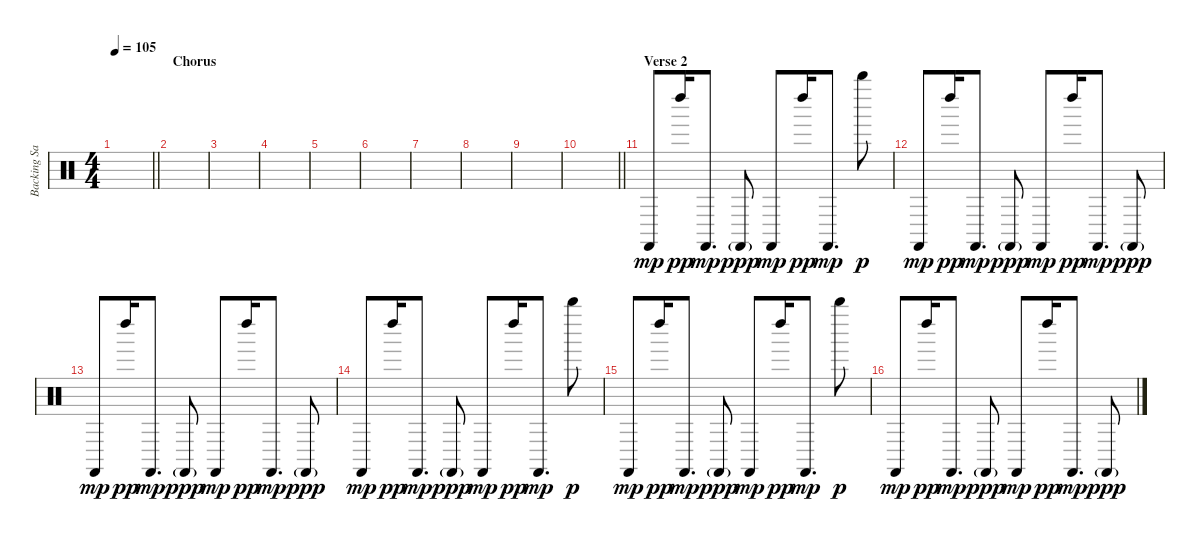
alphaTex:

\track ("Backing Samples " "Backing Sa") {instrument percussion}
\staff {score}
\articulation defaults
\ts (4 4)
\tempo 105
\clef neutral
\barLineRight lightlight
\ks c
|
\section ("" "Chorus ")
|
|
|
|
|
|
|
|
\barLineRight lightlight
|
\section ("" "Verse 2")
"Castanets (hit)".8{dy mp} "Left Maraca (hit)".16{dy pp} "Castanets (hit)".8{d dy mp} "Castanets (hit)"{g}.8{dy ppp} "Castanets (hit)".8{dy mp} "Left Maraca (hit)".16{dy pp} "Castanets (hit)".8{d dy mp} "Whistle high (hit)".8{dy p} |
"Castanets (hit)".8{dy mp} "Left Maraca (hit)".16{dy pp} "Castanets (hit)".8{d dy mp} "Castanets (hit)"{g}.8{dy ppp} "Castanets (hit)".8{dy mp} "Left Maraca (hit)".16{dy pp} "Castanets (hit)".8{d dy mp} "Castanets (hit)"{g}.8{dy ppp} |
"Castanets (hit)".8{dy mp} "Left Maraca (hit)".16{dy pp} "Castanets (hit)".8{d dy mp} "Castanets (hit)"{g}.8{dy ppp} "Castanets (hit)".8{dy mp} "Left Maraca (hit)".16{dy pp} "Castanets (hit)".8{d dy mp} "Castanets (hit)"{g}.8{dy ppp} |
"Castanets (hit)".8{dy mp} "Left Maraca (hit)".16{dy pp} "Castanets (hit)".8{d dy mp} "Castanets (hit)"{g}.8{dy ppp} "Castanets (hit)".8{dy mp} "Left Maraca (hit)".16{dy pp} "Castanets (hit)".8{d dy mp} "Whistle high (hit)".8{dy p} |
"Castanets (hit)".8{dy mp} "Left Maraca (hit)".16{dy pp} "Castanets (hit)".8{d dy mp} "Castanets (hit)"{g}.8{dy ppp} "Castanets (hit)".8{dy mp} "Left Maraca (hit)".16{dy pp} "Castanets (hit)".8{d dy mp} "Whistle high (hit)".8{dy p} |
"Castanets (hit)".8{dy mp} "Left Maraca (hit)".16{dy pp} "Castanets (hit)".8{d dy mp} "Castanets (hit)"{g}.8{dy ppp} "Castanets (hit)".8{dy mp} "Left Maraca (hit)".16{dy pp} "Castanets (hit)".8{d dy mp} "Castanets (hit)"{g}.8{dy ppp}
